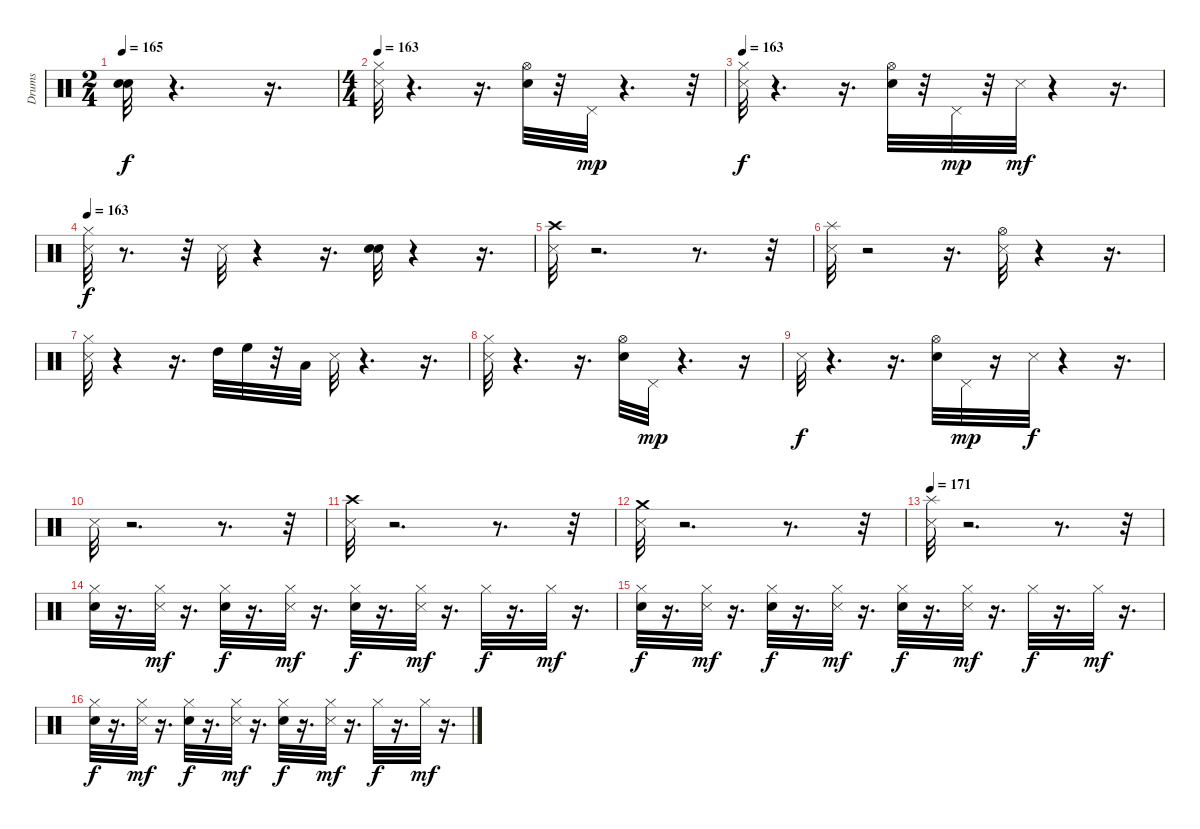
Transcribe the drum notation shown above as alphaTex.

\track ("Drums" "Drums") {instrument percussion}
\staff {score}
\articulation defaults
\ts (2 4)
\tempo 165
\clef neutral
\ks c
("Snare (hit) 2" "Electric Snare (hit)").32{dy f} r.4{d} r.16{d} |
\ts (4 4)
\tempo 163
("Hi-Hat (closed)" "Metronome (hit)").32 r.4{d} r.16{d} ("Hi-Hat (open)" "Snare (hit) 2").32 r.32 "Pedal Hi-Hat (hit)".32{dy mp} r.4{d} r.32 |
\tempo 163
("Hi-Hat (closed)" "Metronome (hit)").32{dy f} r.4{d} r.16{d} ("Hi-Hat (open)" "Snare (hit) 2").32 r.32 "Pedal Hi-Hat (hit)".32{dy mp} r.32 "Metronome (hit)".32{dy mf} r.4 r.16{d} |
\tempo 163
("Hi-Hat (closed)" "Metronome (hit)").32{dy f} r.8{d} r.32 "Metronome (hit)".32 r.4 r.16{d} ("Snare (hit) 2" "Electric Snare (hit)").32 r.4 r.16{d} |
("Crash high (hit)" "Metronome (hit)").32 r.2{d} r.8{d} r.32 |
("Splash (hit)" "Metronome (hit)").32 r.2 r.16{d} ("Metronome (hit)" "Hi-Hat (open)").32 r.4 r.16{d} |
("Hi-Hat (closed)" "Metronome (hit)").32 r.4 r.16{d} "High Tom (hit)".32 "High Floor Tom (hit)".32 r.32 "Low Tom (hit)".32 "Metronome (hit)".32 r.4{d} r.16{d} |
("Hi-Hat (closed)" "Metronome (hit)").32 r.4{d} r.16{d} ("Hi-Hat (open)" "Snare (hit) 2").32 "Pedal Hi-Hat (hit)".32{dy mp} r.4{d} r.16 |
"Metronome (hit)".32{dy f} r.4{d} r.16{d} ("Hi-Hat (open)" "Snare (hit) 2").32 "Pedal Hi-Hat (hit)".32{dy mp} r.16 "Metronome (hit)".32{dy f} r.4 r.16{d} |
"Metronome (hit)".32 r.2{d} r.8{d} r.32 |
("Crash high (hit)" "Metronome (hit)").32 r.2{d} r.8{d} r.32 |
("Crash medium (hit)" "Metronome (hit)").32 r.2{d} r.8{d} r.32 |
\tempo 171
("Splash (hit)" "Metronome (hit)").32 r.2{d} r.8{d} r.32 |
("Snare (hit) 2" "Hi-Hat (closed)").32 r.16{d} ("Hi-Hat (closed)" "Metronome (hit)").32{dy mf} r.16{d} ("Hi-Hat (closed)" "Snare (hit) 2").32{dy f} r.16{d} ("Hi-Hat (closed)" "Metronome (hit)").32{dy mf} r.16{d} ("Hi-Hat (closed)" "Snare (hit) 2").32{dy f} r.16{d} ("Hi-Hat (closed)" "Metronome (hit)").32{dy mf} r.16{d} "Hi-Hat (closed)".32{dy f} r.16{d} "Hi-Hat (closed)".32{dy mf} r.16{d} |
("Snare (hit) 2" "Hi-Hat (closed)").32{dy f} r.16{d} ("Hi-Hat (closed)" "Metronome (hit)").32{dy mf} r.16{d} ("Hi-Hat (closed)" "Snare (hit) 2").32{dy f} r.16{d} ("Hi-Hat (closed)" "Metronome (hit)").32{dy mf} r.16{d} ("Hi-Hat (closed)" "Snare (hit) 2").32{dy f} r.16{d} ("Hi-Hat (closed)" "Metronome (hit)").32{dy mf} r.16{d} "Hi-Hat (closed)".32{dy f} r.16{d} "Hi-Hat (closed)".32{dy mf} r.16{d} |
("Snare (hit) 2" "Hi-Hat (closed)").32{dy f} r.16{d} ("Hi-Hat (closed)" "Metronome (hit)").32{dy mf} r.16{d} ("Hi-Hat (closed)" "Snare (hit) 2").32{dy f} r.16{d} ("Hi-Hat (closed)" "Metronome (hit)").32{dy mf} r.16{d} ("Hi-Hat (closed)" "Snare (hit) 2").32{dy f} r.16{d} ("Hi-Hat (closed)" "Metronome (hit)").32{dy mf} r.16{d} "Hi-Hat (closed)".32{dy f} r.16{d} "Hi-Hat (closed)".32{dy mf} r.16{d}
